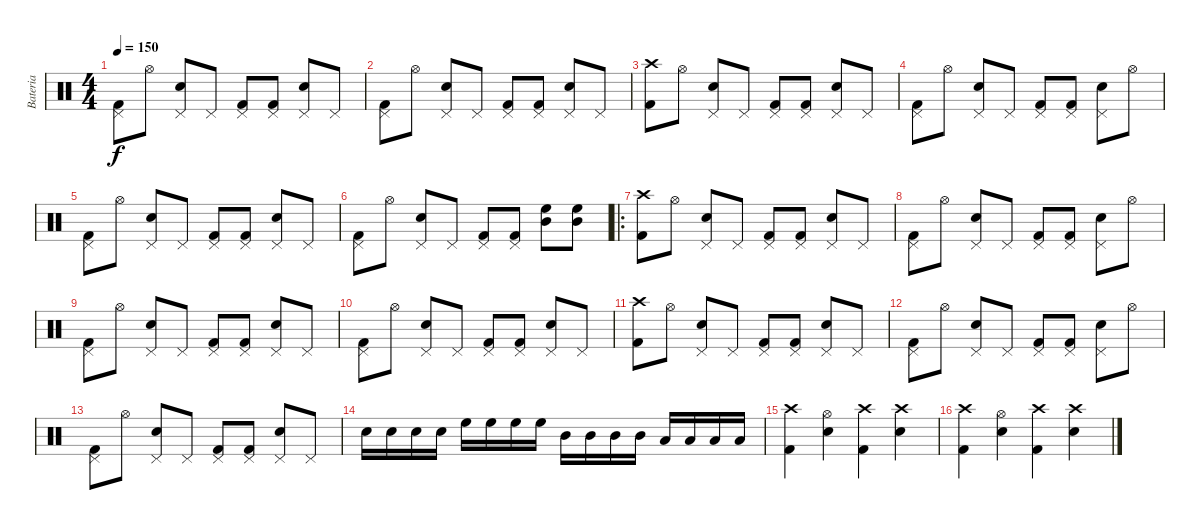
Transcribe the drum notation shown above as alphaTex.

\track ("Bateria" "Bateria") {instrument percussion}
\staff {score}
\articulation defaults
\ts (4 4)
\tempo 150
\clef neutral
\ks c
("Pedal Hi-Hat (hit)" "Kick (hit) 2").8{dy f} "Hi-Hat (open)".8 ("Pedal Hi-Hat (hit)" "Snare (hit) 2").8 "Pedal Hi-Hat (hit)".8 ("Pedal Hi-Hat (hit)" "Kick (hit) 2").8 ("Pedal Hi-Hat (hit)" "Kick (hit) 2").8 ("Pedal Hi-Hat (hit)" "Snare (hit) 2").8 "Pedal Hi-Hat (hit)".8 |
("Pedal Hi-Hat (hit)" "Kick (hit) 2").8 "Hi-Hat (open)".8 ("Pedal Hi-Hat (hit)" "Snare (hit) 2").8 "Pedal Hi-Hat (hit)".8 ("Pedal Hi-Hat (hit)" "Kick (hit) 2").8 ("Pedal Hi-Hat (hit)" "Kick (hit) 2").8 ("Pedal Hi-Hat (hit)" "Snare (hit) 2").8 "Pedal Hi-Hat (hit)".8 |
("Crash high (hit)" "Kick (hit) 2").8 "Hi-Hat (open)".8 ("Pedal Hi-Hat (hit)" "Snare (hit) 2").8 "Pedal Hi-Hat (hit)".8 ("Pedal Hi-Hat (hit)" "Kick (hit) 2").8 ("Pedal Hi-Hat (hit)" "Kick (hit) 2").8 ("Pedal Hi-Hat (hit)" "Snare (hit) 2").8 "Pedal Hi-Hat (hit)".8 |
("Pedal Hi-Hat (hit)" "Kick (hit) 2").8 "Hi-Hat (open)".8 ("Pedal Hi-Hat (hit)" "Snare (hit) 2").8 "Pedal Hi-Hat (hit)".8 ("Pedal Hi-Hat (hit)" "Kick (hit) 2").8 ("Pedal Hi-Hat (hit)" "Kick (hit) 2").8 ("Pedal Hi-Hat (hit)" "Snare (hit) 2").8 "Hi-Hat (open)".8 |
("Pedal Hi-Hat (hit)" "Kick (hit) 2").8 "Hi-Hat (open)".8 ("Pedal Hi-Hat (hit)" "Snare (hit) 2").8 "Pedal Hi-Hat (hit)".8 ("Pedal Hi-Hat (hit)" "Kick (hit) 2").8 ("Pedal Hi-Hat (hit)" "Kick (hit) 2").8 ("Pedal Hi-Hat (hit)" "Snare (hit) 2").8 "Pedal Hi-Hat (hit)".8 |
("Pedal Hi-Hat (hit)" "Kick (hit) 2").8 "Hi-Hat (open)".8 ("Pedal Hi-Hat (hit)" "Snare (hit) 2").8 "Pedal Hi-Hat (hit)".8 ("Pedal Hi-Hat (hit)" "Kick (hit) 2").8 ("Pedal Hi-Hat (hit)" "Kick (hit) 2").8 ("Mid Tom (hit)" "High Floor Tom (hit)").8 ("Mid Tom (hit)" "High Floor Tom (hit)").8 |
\ro
("Crash high (hit)" "Kick (hit) 2").8 "Hi-Hat (open)".8 ("Pedal Hi-Hat (hit)" "Snare (hit) 2").8 "Pedal Hi-Hat (hit)".8 ("Pedal Hi-Hat (hit)" "Kick (hit) 2").8 ("Pedal Hi-Hat (hit)" "Kick (hit) 2").8 ("Pedal Hi-Hat (hit)" "Snare (hit) 2").8 "Pedal Hi-Hat (hit)".8 |
("Pedal Hi-Hat (hit)" "Kick (hit) 2").8 "Hi-Hat (open)".8 ("Pedal Hi-Hat (hit)" "Snare (hit) 2").8 "Pedal Hi-Hat (hit)".8 ("Pedal Hi-Hat (hit)" "Kick (hit) 2").8 ("Pedal Hi-Hat (hit)" "Kick (hit) 2").8 ("Pedal Hi-Hat (hit)" "Snare (hit) 2").8 "Hi-Hat (open)".8 |
("Pedal Hi-Hat (hit)" "Kick (hit) 2").8 "Hi-Hat (open)".8 ("Pedal Hi-Hat (hit)" "Snare (hit) 2").8 "Pedal Hi-Hat (hit)".8 ("Pedal Hi-Hat (hit)" "Kick (hit) 2").8 ("Pedal Hi-Hat (hit)" "Kick (hit) 2").8 ("Pedal Hi-Hat (hit)" "Snare (hit) 2").8 "Pedal Hi-Hat (hit)".8 |
("Pedal Hi-Hat (hit)" "Kick (hit) 2").8 "Hi-Hat (open)".8 ("Pedal Hi-Hat (hit)" "Snare (hit) 2").8 "Pedal Hi-Hat (hit)".8 ("Pedal Hi-Hat (hit)" "Kick (hit) 2").8 ("Pedal Hi-Hat (hit)" "Kick (hit) 2").8 ("Pedal Hi-Hat (hit)" "Snare (hit) 2").8 "Pedal Hi-Hat (hit)".8 |
("Crash high (hit)" "Kick (hit) 2").8 "Hi-Hat (open)".8 ("Pedal Hi-Hat (hit)" "Snare (hit) 2").8 "Pedal Hi-Hat (hit)".8 ("Pedal Hi-Hat (hit)" "Kick (hit) 2").8 ("Pedal Hi-Hat (hit)" "Kick (hit) 2").8 ("Pedal Hi-Hat (hit)" "Snare (hit) 2").8 "Pedal Hi-Hat (hit)".8 |
("Pedal Hi-Hat (hit)" "Kick (hit) 2").8 "Hi-Hat (open)".8 ("Pedal Hi-Hat (hit)" "Snare (hit) 2").8 "Pedal Hi-Hat (hit)".8 ("Pedal Hi-Hat (hit)" "Kick (hit) 2").8 ("Pedal Hi-Hat (hit)" "Kick (hit) 2").8 ("Pedal Hi-Hat (hit)" "Snare (hit) 2").8 "Hi-Hat (open)".8 |
("Pedal Hi-Hat (hit)" "Kick (hit) 2").8 "Hi-Hat (open)".8 ("Pedal Hi-Hat (hit)" "Snare (hit) 2").8 "Pedal Hi-Hat (hit)".8 ("Pedal Hi-Hat (hit)" "Kick (hit) 2").8 ("Pedal Hi-Hat (hit)" "Kick (hit) 2").8 ("Pedal Hi-Hat (hit)" "Snare (hit) 2").8 "Pedal Hi-Hat (hit)".8 |
"Snare (hit) 2".16 "Snare (hit) 2".16 "Snare (hit) 2".16 "Snare (hit) 2".16 "High Floor Tom (hit)".16 "High Floor Tom (hit)".16 "High Floor Tom (hit)".16 "High Floor Tom (hit)".16 "Mid Tom (hit)".16 "Mid Tom (hit)".16 "Mid Tom (hit)".16 "Mid Tom (hit)".16 "Low Tom (hit)".16 "Low Tom (hit)".16 "Low Tom (hit)".16 "Low Tom (hit)".16 |
("Kick (hit) 2" "Crash high (hit)").4 ("Snare (hit) 2" "Hi-Hat (open)").4 ("Kick (hit) 2" "Crash high (hit)").4 ("Snare (hit) 2" "Crash high (hit)").4 |
("Kick (hit) 2" "Crash high (hit)").4 ("Snare (hit) 2" "Hi-Hat (open)").4 ("Kick (hit) 2" "Crash high (hit)").4 ("Snare (hit) 2" "Crash high (hit)").4
